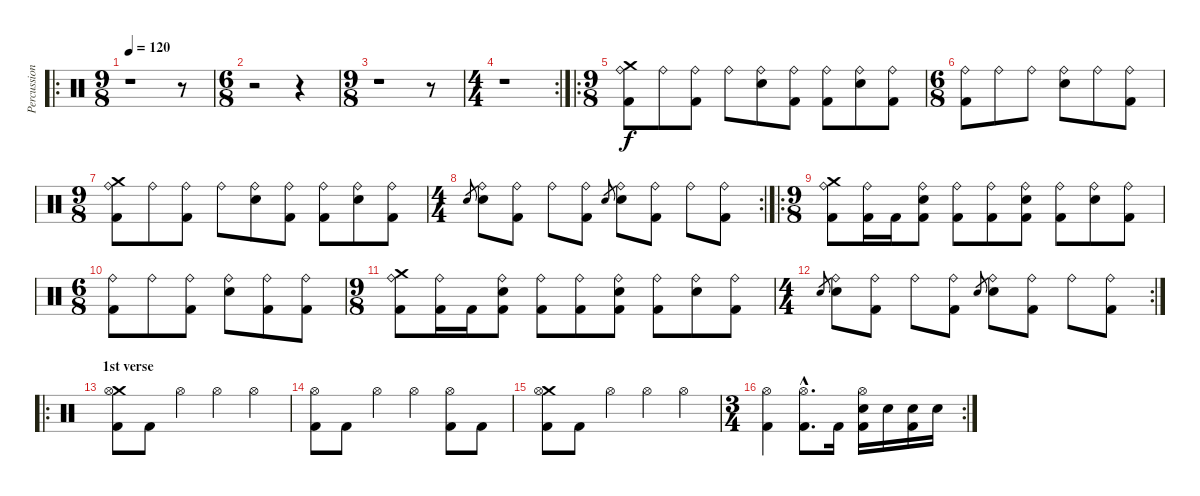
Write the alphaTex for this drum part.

\track ("Percussion" "Percussion") {instrument percussion}
\staff {score}
\articulation defaults
\ro
\ts (9 8)
\tempo 120
\clef neutral
\ks c
r.1{dy f} r.8 |
\ts (6 8)
r.2 r.4 |
\ts (9 8)
r.1 r.8 |
\rc 2
\ts (4 4)
r.1 |
\ro
\ts (9 8)
("Crash medium (hit)" "Ride (bell)" "Kick (hit) 2").8 "Ride (bell)".8 ("Ride (bell)" "Kick (hit) 2").8 "Ride (bell)".8 ("Ride (bell)" "Electric Snare (hit)").8 ("Ride (bell)" "Kick (hit) 2").8 ("Ride (bell)" "Kick (hit) 2").8 ("Ride (bell)" "Electric Snare (hit)").8 ("Ride (bell)" "Kick (hit) 2").8 |
\ts (6 8)
("Ride (bell)" "Kick (hit) 2").8 "Ride (bell)".8 "Ride (bell)".8 ("Ride (bell)" "Electric Snare (hit)").8 "Ride (bell)".8 ("Ride (bell)" "Kick (hit) 2").8 |
\ts (9 8)
("Crash medium (hit)" "Ride (bell)" "Kick (hit) 2").8 "Ride (bell)".8 ("Ride (bell)" "Kick (hit) 2").8 "Ride (bell)".8 ("Ride (bell)" "Electric Snare (hit)").8 ("Ride (bell)" "Kick (hit) 2").8 ("Ride (bell)" "Kick (hit) 2").8 ("Ride (bell)" "Electric Snare (hit)").8 ("Ride (bell)" "Kick (hit) 2").8 |
\rc 2
\ts (4 4)
"Electric Snare (hit)".8{gr} ("Ride (bell)" "Electric Snare (hit)").8 ("Ride (bell)" "Kick (hit) 2").8 "Ride (bell)".8 ("Ride (bell)" "Kick (hit) 2").8 "Electric Snare (hit)".8{gr} ("Ride (bell)" "Electric Snare (hit)").8 ("Ride (bell)" "Kick (hit) 2").8 "Ride (bell)".8 ("Ride (bell)" "Kick (hit) 2").8 |
\ro
\ts (9 8)
("Crash medium (hit)" "Ride (bell)" "Kick (hit) 2").8 ("Ride (bell)" "Kick (hit) 2").16 "Kick (hit) 2".16 ("Ride (bell)" "Electric Snare (hit)" "Kick (hit) 2").8 ("Ride (bell)" "Kick (hit) 2").8 ("Ride (bell)" "Kick (hit) 2").8 ("Ride (bell)" "Electric Snare (hit)" "Kick (hit) 2").8 ("Ride (bell)" "Kick (hit) 2").8 ("Ride (bell)" "Electric Snare (hit)").8 ("Ride (bell)" "Kick (hit) 2").8 |
\ts (6 8)
("Ride (bell)" "Kick (hit) 2").8 "Ride (bell)".8 ("Ride (bell)" "Kick (hit) 2").8 ("Ride (bell)" "Electric Snare (hit)").8 ("Ride (bell)" "Kick (hit) 2").8 ("Ride (bell)" "Kick (hit) 2").8 |
\ts (9 8)
("Crash medium (hit)" "Ride (bell)" "Kick (hit) 2").8 ("Ride (bell)" "Kick (hit) 2").16 "Kick (hit) 2".16 ("Ride (bell)" "Electric Snare (hit)" "Kick (hit) 2").8 ("Ride (bell)" "Kick (hit) 2").8 ("Ride (bell)" "Kick (hit) 2").8 ("Ride (bell)" "Electric Snare (hit)" "Kick (hit) 2").8 ("Ride (bell)" "Kick (hit) 2").8 ("Ride (bell)" "Electric Snare (hit)").8 ("Ride (bell)" "Kick (hit) 2").8 |
\rc 2
\ts (4 4)
"Electric Snare (hit)".8{gr} ("Ride (bell)" "Electric Snare (hit)").8 ("Ride (bell)" "Kick (hit) 2").8 "Ride (bell)".8 ("Ride (bell)" "Kick (hit) 2").8 "Electric Snare (hit)".8{gr} ("Ride (bell)" "Electric Snare (hit)").8 ("Ride (bell)" "Kick (hit) 2").8 "Ride (bell)".8 ("Ride (bell)" "Kick (hit) 2").8 |
\ro
\section ("" "1st verse")
("Crash medium (hit)" "Hi-Hat (open)" "Kick (hit) 2").8 "Kick (hit) 2".8 "Hi-Hat (open)".4 "Hi-Hat (open)".4 "Hi-Hat (open)".4 |
("Hi-Hat (open)" "Kick (hit) 2").8 "Kick (hit) 2".8 "Hi-Hat (open)".4 "Hi-Hat (open)".4 ("Hi-Hat (open)" "Kick (hit) 2").8 "Kick (hit) 2".8 |
("Crash medium (hit)" "Hi-Hat (open)" "Kick (hit) 2").8 "Kick (hit) 2".8 "Hi-Hat (open)".4 "Hi-Hat (open)".4 "Hi-Hat (open)".4 |
\rc 2
\ts (3 4)
("Hi-Hat (open)" "Kick (hit) 2").4 ("Hi-Hat (open)"{hac} "Kick (hit) 2"{hac}).8{d} "Kick (hit) 2".16 ("Hi-Hat (open)" "Electric Snare (hit)" "Kick (hit) 2").16 "Electric Snare (hit)".16 ("Electric Snare (hit)" "Kick (hit) 2").16 "Electric Snare (hit)".16
